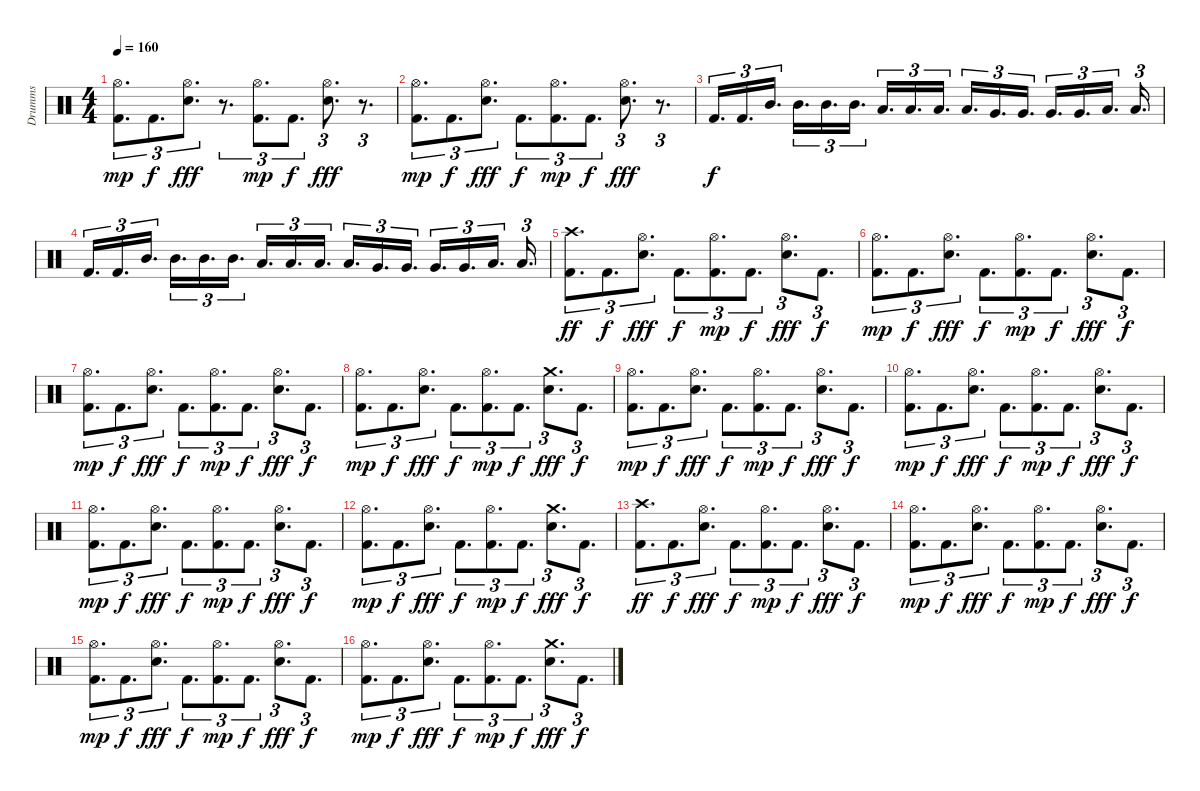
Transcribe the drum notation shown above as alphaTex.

\track ("Drumms" "Drumms") {instrument percussion}
\staff {score}
\articulation defaults
\ts (4 4)
\tempo 160
\clef neutral
\ks c
("Hi-Hat (open)" "Kick (hit) 2").8{d tu (3 2) dy mp} "Kick (hit) 2".8{d tu (3 2) dy f} ("Hi-Hat (open)" "Electric Snare (hit)").8{d tu (3 2) dy fff} r.8{d tu (3 2)} ("Hi-Hat (open)" "Kick (hit) 2").8{d tu (3 2) dy mp} "Kick (hit) 2".8{d tu (3 2) dy f} ("Hi-Hat (open)" "Electric Snare (hit)").8{d tu (3 2) dy fff} r.8{d tu (3 2)} |
("Hi-Hat (open)" "Kick (hit) 2").8{d tu (3 2) dy mp} "Kick (hit) 2".8{d tu (3 2) dy f} ("Hi-Hat (open)" "Electric Snare (hit)").8{d tu (3 2) dy fff} "Kick (hit) 2".8{d tu (3 2) dy f} ("Hi-Hat (open)" "Kick (hit) 2").8{d tu (3 2) dy mp} "Kick (hit) 2".8{d tu (3 2) dy f} ("Hi-Hat (open)" "Electric Snare (hit)").8{d tu (3 2) dy fff} r.8{d tu (3 2)} |
"Kick (hit) 2".16{d tu (3 2) dy f} "Kick (hit) 2".16{d tu (3 2)} "Mid Tom (hit)".16{d tu (3 2)} "Mid Tom (hit)".16{d tu (3 2)} "Mid Tom (hit)".16{d tu (3 2)} "Mid Tom (hit)".16{d tu (3 2)} "Low Tom (hit)".16{d tu (3 2)} "Low Tom (hit)".16{d tu (3 2)} "Low Tom (hit)".16{d tu (3 2)} "Low Tom (hit)".16{d tu (3 2)} "Very Low Tom (hit)".16{d tu (3 2)} "Very Low Tom (hit)".16{d tu (3 2)} "Very Low Tom (hit)".16{d tu (3 2)} "Very Low Tom (hit)".16{d tu (3 2)} "Low Floor Tom (hit)".16{d tu (3 2)} "Low Floor Tom (hit)".16{d tu (3 2)} |
"Kick (hit) 2".16{d tu (3 2)} "Kick (hit) 2".16{d tu (3 2)} "Mid Tom (hit)".16{d tu (3 2)} "Mid Tom (hit)".16{d tu (3 2)} "Mid Tom (hit)".16{d tu (3 2)} "Mid Tom (hit)".16{d tu (3 2)} "Low Tom (hit)".16{d tu (3 2)} "Low Tom (hit)".16{d tu (3 2)} "Low Tom (hit)".16{d tu (3 2)} "Low Tom (hit)".16{d tu (3 2)} "Very Low Tom (hit)".16{d tu (3 2)} "Very Low Tom (hit)".16{d tu (3 2)} "Very Low Tom (hit)".16{d tu (3 2)} "Very Low Tom (hit)".16{d tu (3 2)} "Low Floor Tom (hit)".16{d tu (3 2)} "Low Floor Tom (hit)".16{d tu (3 2)} |
\section ("" "")
("Crash high (hit)" "Kick (hit) 2").8{d tu (3 2) dy ff} "Kick (hit) 2".8{d tu (3 2) dy f} ("Hi-Hat (open)" "Electric Snare (hit)").8{d tu (3 2) dy fff} "Kick (hit) 2".8{d tu (3 2) dy f} ("Hi-Hat (open)" "Kick (hit) 2").8{d tu (3 2) dy mp} "Kick (hit) 2".8{d tu (3 2) dy f} ("Hi-Hat (open)" "Electric Snare (hit)").8{d tu (3 2) dy fff} "Kick (hit) 2".8{d tu (3 2) dy f} |
("Hi-Hat (open)" "Kick (hit) 2").8{d tu (3 2) dy mp} "Kick (hit) 2".8{d tu (3 2) dy f} ("Hi-Hat (open)" "Electric Snare (hit)").8{d tu (3 2) dy fff} "Kick (hit) 2".8{d tu (3 2) dy f} ("Hi-Hat (open)" "Kick (hit) 2").8{d tu (3 2) dy mp} "Kick (hit) 2".8{d tu (3 2) dy f} ("Hi-Hat (open)" "Electric Snare (hit)").8{d tu (3 2) dy fff} "Kick (hit) 2".8{d tu (3 2) dy f} |
("Hi-Hat (open)" "Kick (hit) 2").8{d tu (3 2) dy mp} "Kick (hit) 2".8{d tu (3 2) dy f} ("Hi-Hat (open)" "Electric Snare (hit)").8{d tu (3 2) dy fff} "Kick (hit) 2".8{d tu (3 2) dy f} ("Hi-Hat (open)" "Kick (hit) 2").8{d tu (3 2) dy mp} "Kick (hit) 2".8{d tu (3 2) dy f} ("Hi-Hat (open)" "Electric Snare (hit)").8{d tu (3 2) dy fff} "Kick (hit) 2".8{d tu (3 2) dy f} |
("Hi-Hat (open)" "Kick (hit) 2").8{d tu (3 2) dy mp} "Kick (hit) 2".8{d tu (3 2) dy f} ("Hi-Hat (open)" "Electric Snare (hit)").8{d tu (3 2) dy fff} "Kick (hit) 2".8{d tu (3 2) dy f} ("Hi-Hat (open)" "Kick (hit) 2").8{d tu (3 2) dy mp} "Kick (hit) 2".8{d tu (3 2) dy f} ("Crash medium (hit)" "Electric Snare (hit)").8{d tu (3 2) dy fff} "Kick (hit) 2".8{d tu (3 2) dy f} |
("Hi-Hat (open)" "Kick (hit) 2").8{d tu (3 2) dy mp} "Kick (hit) 2".8{d tu (3 2) dy f} ("Hi-Hat (open)" "Electric Snare (hit)").8{d tu (3 2) dy fff} "Kick (hit) 2".8{d tu (3 2) dy f} ("Hi-Hat (open)" "Kick (hit) 2").8{d tu (3 2) dy mp} "Kick (hit) 2".8{d tu (3 2) dy f} ("Hi-Hat (open)" "Electric Snare (hit)").8{d tu (3 2) dy fff} "Kick (hit) 2".8{d tu (3 2) dy f} |
("Hi-Hat (open)" "Kick (hit) 2").8{d tu (3 2) dy mp} "Kick (hit) 2".8{d tu (3 2) dy f} ("Hi-Hat (open)" "Electric Snare (hit)").8{d tu (3 2) dy fff} "Kick (hit) 2".8{d tu (3 2) dy f} ("Hi-Hat (open)" "Kick (hit) 2").8{d tu (3 2) dy mp} "Kick (hit) 2".8{d tu (3 2) dy f} ("Hi-Hat (open)" "Electric Snare (hit)").8{d tu (3 2) dy fff} "Kick (hit) 2".8{d tu (3 2) dy f} |
("Hi-Hat (open)" "Kick (hit) 2").8{d tu (3 2) dy mp} "Kick (hit) 2".8{d tu (3 2) dy f} ("Hi-Hat (open)" "Electric Snare (hit)").8{d tu (3 2) dy fff} "Kick (hit) 2".8{d tu (3 2) dy f} ("Hi-Hat (open)" "Kick (hit) 2").8{d tu (3 2) dy mp} "Kick (hit) 2".8{d tu (3 2) dy f} ("Hi-Hat (open)" "Electric Snare (hit)").8{d tu (3 2) dy fff} "Kick (hit) 2".8{d tu (3 2) dy f} |
("Hi-Hat (open)" "Kick (hit) 2").8{d tu (3 2) dy mp} "Kick (hit) 2".8{d tu (3 2) dy f} ("Hi-Hat (open)" "Electric Snare (hit)").8{d tu (3 2) dy fff} "Kick (hit) 2".8{d tu (3 2) dy f} ("Hi-Hat (open)" "Kick (hit) 2").8{d tu (3 2) dy mp} "Kick (hit) 2".8{d tu (3 2) dy f} ("Crash medium (hit)" "Electric Snare (hit)").8{d tu (3 2) dy fff} "Kick (hit) 2".8{d tu (3 2) dy f} |
("Crash high (hit)" "Kick (hit) 2").8{d tu (3 2) dy ff} "Kick (hit) 2".8{d tu (3 2) dy f} ("Hi-Hat (open)" "Electric Snare (hit)").8{d tu (3 2) dy fff} "Kick (hit) 2".8{d tu (3 2) dy f} ("Hi-Hat (open)" "Kick (hit) 2").8{d tu (3 2) dy mp} "Kick (hit) 2".8{d tu (3 2) dy f} ("Hi-Hat (open)" "Electric Snare (hit)").8{d tu (3 2) dy fff} "Kick (hit) 2".8{d tu (3 2) dy f} |
("Hi-Hat (open)" "Kick (hit) 2").8{d tu (3 2) dy mp} "Kick (hit) 2".8{d tu (3 2) dy f} ("Hi-Hat (open)" "Electric Snare (hit)").8{d tu (3 2) dy fff} "Kick (hit) 2".8{d tu (3 2) dy f} ("Hi-Hat (open)" "Kick (hit) 2").8{d tu (3 2) dy mp} "Kick (hit) 2".8{d tu (3 2) dy f} ("Hi-Hat (open)" "Electric Snare (hit)").8{d tu (3 2) dy fff} "Kick (hit) 2".8{d tu (3 2) dy f} |
("Hi-Hat (open)" "Kick (hit) 2").8{d tu (3 2) dy mp} "Kick (hit) 2".8{d tu (3 2) dy f} ("Hi-Hat (open)" "Electric Snare (hit)").8{d tu (3 2) dy fff} "Kick (hit) 2".8{d tu (3 2) dy f} ("Hi-Hat (open)" "Kick (hit) 2").8{d tu (3 2) dy mp} "Kick (hit) 2".8{d tu (3 2) dy f} ("Hi-Hat (open)" "Electric Snare (hit)").8{d tu (3 2) dy fff} "Kick (hit) 2".8{d tu (3 2) dy f} |
("Hi-Hat (open)" "Kick (hit) 2").8{d tu (3 2) dy mp} "Kick (hit) 2".8{d tu (3 2) dy f} ("Hi-Hat (open)" "Electric Snare (hit)").8{d tu (3 2) dy fff} "Kick (hit) 2".8{d tu (3 2) dy f} ("Hi-Hat (open)" "Kick (hit) 2").8{d tu (3 2) dy mp} "Kick (hit) 2".8{d tu (3 2) dy f} ("Crash medium (hit)" "Electric Snare (hit)").8{d tu (3 2) dy fff} "Kick (hit) 2".8{d tu (3 2) dy f}
